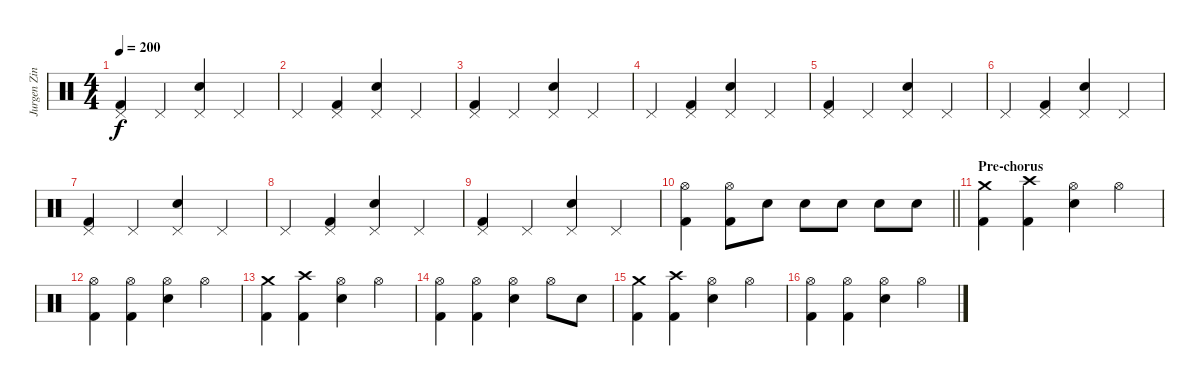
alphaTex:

\track ("Jurgen Zink" "Jurgen Zin") {instrument percussion}
\staff {score}
\articulation defaults
\ts (4 4)
\tempo 200
\clef neutral
\ks c
("Pedal Hi-Hat (hit)" "Kick (hit) 2").4{dy f} "Pedal Hi-Hat (hit)".4 ("Pedal Hi-Hat (hit)" "Electric Snare (hit)").4 "Pedal Hi-Hat (hit)".4 |
"Pedal Hi-Hat (hit)".4 ("Pedal Hi-Hat (hit)" "Kick (hit) 2").4 ("Pedal Hi-Hat (hit)" "Electric Snare (hit)").4 "Pedal Hi-Hat (hit)".4 |
("Pedal Hi-Hat (hit)" "Kick (hit) 2").4 "Pedal Hi-Hat (hit)".4 ("Pedal Hi-Hat (hit)" "Electric Snare (hit)").4 "Pedal Hi-Hat (hit)".4 |
"Pedal Hi-Hat (hit)".4 ("Pedal Hi-Hat (hit)" "Kick (hit) 2").4 ("Pedal Hi-Hat (hit)" "Electric Snare (hit)").4 "Pedal Hi-Hat (hit)".4 |
("Pedal Hi-Hat (hit)" "Kick (hit) 2").4 "Pedal Hi-Hat (hit)".4 ("Pedal Hi-Hat (hit)" "Electric Snare (hit)").4 "Pedal Hi-Hat (hit)".4 |
"Pedal Hi-Hat (hit)".4 ("Pedal Hi-Hat (hit)" "Kick (hit) 2").4 ("Pedal Hi-Hat (hit)" "Electric Snare (hit)").4 "Pedal Hi-Hat (hit)".4 |
("Pedal Hi-Hat (hit)" "Kick (hit) 2").4 "Pedal Hi-Hat (hit)".4 ("Pedal Hi-Hat (hit)" "Electric Snare (hit)").4 "Pedal Hi-Hat (hit)".4 |
"Pedal Hi-Hat (hit)".4 ("Pedal Hi-Hat (hit)" "Kick (hit) 2").4 ("Pedal Hi-Hat (hit)" "Electric Snare (hit)").4 "Pedal Hi-Hat (hit)".4 |
("Pedal Hi-Hat (hit)" "Kick (hit) 2").4 "Pedal Hi-Hat (hit)".4 ("Pedal Hi-Hat (hit)" "Electric Snare (hit)").4 "Pedal Hi-Hat (hit)".4 |
\barLineRight lightlight
("Hi-Hat (open)" "Kick (hit) 2").4 ("Hi-Hat (open)" "Kick (hit) 2").8 "Electric Snare (hit)".8 "Electric Snare (hit)".8 "Electric Snare (hit)".8 "Electric Snare (hit)".8 "Electric Snare (hit)".8 |
\section ("" "Pre-chorus")
("Crash medium (hit)" "Kick (hit) 2").4 ("Crash high (hit)" "Kick (hit) 2").4 ("Hi-Hat (open)" "Electric Snare (hit)").4 "Hi-Hat (open)".4 |
("Hi-Hat (open)" "Kick (hit) 2").4 ("Hi-Hat (open)" "Kick (hit) 2").4 ("Hi-Hat (open)" "Electric Snare (hit)").4 "Hi-Hat (open)".4 |
("Crash medium (hit)" "Kick (hit) 2").4 ("Crash high (hit)" "Kick (hit) 2").4 ("Hi-Hat (open)" "Electric Snare (hit)").4 "Hi-Hat (open)".4 |
("Hi-Hat (open)" "Kick (hit) 2").4 ("Hi-Hat (open)" "Kick (hit) 2").4 ("Hi-Hat (open)" "Electric Snare (hit)").4 "Hi-Hat (open)".8 "Electric Snare (hit)".8 |
("Crash medium (hit)" "Kick (hit) 2").4 ("Crash high (hit)" "Kick (hit) 2").4 ("Hi-Hat (open)" "Electric Snare (hit)").4 "Hi-Hat (open)".4 |
("Hi-Hat (open)" "Kick (hit) 2").4 ("Hi-Hat (open)" "Kick (hit) 2").4 ("Hi-Hat (open)" "Electric Snare (hit)").4 "Hi-Hat (open)".4
